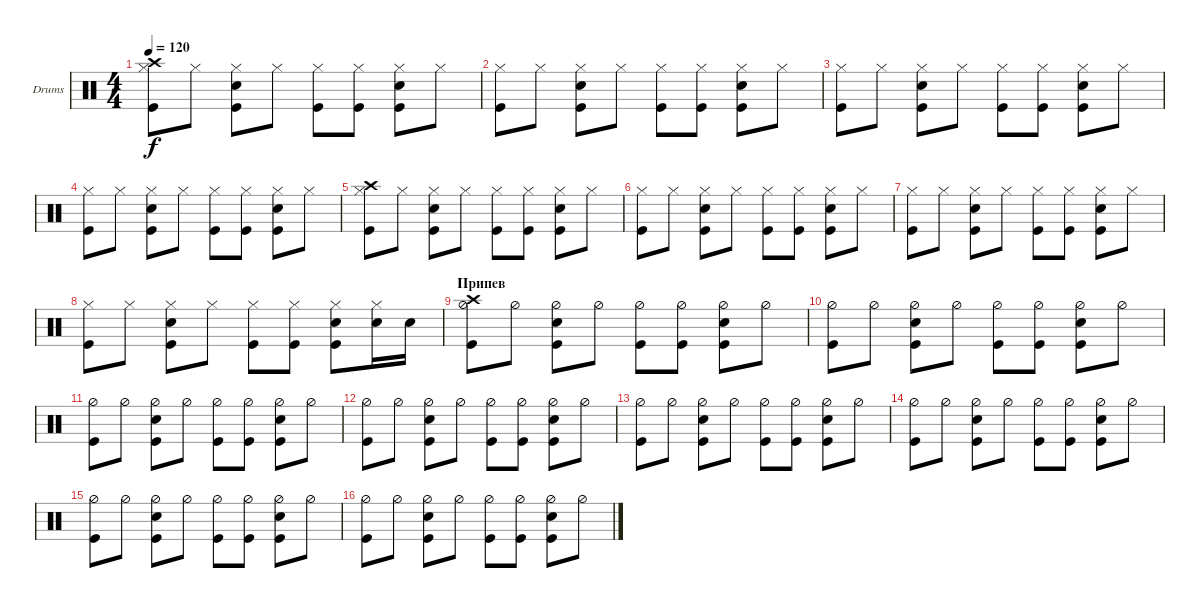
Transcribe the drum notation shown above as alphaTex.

\defaultSystemsLayout 4
\bracketExtendMode groupsimilarinstruments
\firstSystemTrackNameOrientation horizontal
\otherSystemsTrackNameOrientation horizontal
\track ("Drumkit" "Drums") {instrument percussion}
\staff {score}
\articulation defaults
\ts (4 4)
\tempo 120
\clef neutral
\ks c
("Hi-Hat (closed)" "Kick (hit)" "Crash high (hit)").8{dy f} "Hi-Hat (closed)".8 ("Hi-Hat (closed)" "Snare (hit) 2" "Kick (hit)").8 "Hi-Hat (closed)".8 ("Hi-Hat (closed)" "Kick (hit)").8 ("Hi-Hat (closed)" "Kick (hit)").8 ("Hi-Hat (closed)" "Snare (hit) 2" "Kick (hit)").8 "Hi-Hat (closed)".8 |
("Hi-Hat (closed)" "Kick (hit)").8 "Hi-Hat (closed)".8 ("Hi-Hat (closed)" "Snare (hit) 2" "Kick (hit)").8 "Hi-Hat (closed)".8 ("Hi-Hat (closed)" "Kick (hit)").8 ("Hi-Hat (closed)" "Kick (hit)").8 ("Hi-Hat (closed)" "Snare (hit) 2" "Kick (hit)").8 "Hi-Hat (closed)".8 |
("Hi-Hat (closed)" "Kick (hit)").8 "Hi-Hat (closed)".8 ("Hi-Hat (closed)" "Snare (hit) 2" "Kick (hit)").8 "Hi-Hat (closed)".8 ("Hi-Hat (closed)" "Kick (hit)").8 ("Hi-Hat (closed)" "Kick (hit)").8 ("Hi-Hat (closed)" "Snare (hit) 2" "Kick (hit)").8 "Hi-Hat (closed)".8 |
("Hi-Hat (closed)" "Kick (hit)").8 "Hi-Hat (closed)".8 ("Hi-Hat (closed)" "Snare (hit) 2" "Kick (hit)").8 "Hi-Hat (closed)".8 ("Hi-Hat (closed)" "Kick (hit)").8 ("Hi-Hat (closed)" "Kick (hit)").8 ("Hi-Hat (closed)" "Snare (hit) 2" "Kick (hit)").8 "Hi-Hat (closed)".8 |
("Hi-Hat (closed)" "Kick (hit)" "Crash high (hit)").8 "Hi-Hat (closed)".8 ("Hi-Hat (closed)" "Snare (hit) 2" "Kick (hit)").8 "Hi-Hat (closed)".8 ("Hi-Hat (closed)" "Kick (hit)").8 ("Hi-Hat (closed)" "Kick (hit)").8 ("Hi-Hat (closed)" "Snare (hit) 2" "Kick (hit)").8 "Hi-Hat (closed)".8 |
("Hi-Hat (closed)" "Kick (hit)").8 "Hi-Hat (closed)".8 ("Hi-Hat (closed)" "Snare (hit) 2" "Kick (hit)").8 "Hi-Hat (closed)".8 ("Hi-Hat (closed)" "Kick (hit)").8 ("Hi-Hat (closed)" "Kick (hit)").8 ("Hi-Hat (closed)" "Snare (hit) 2" "Kick (hit)").8 "Hi-Hat (closed)".8 |
("Hi-Hat (closed)" "Kick (hit)").8 "Hi-Hat (closed)".8 ("Hi-Hat (closed)" "Snare (hit) 2" "Kick (hit)").8 "Hi-Hat (closed)".8 ("Hi-Hat (closed)" "Kick (hit)").8 ("Hi-Hat (closed)" "Kick (hit)").8 ("Hi-Hat (closed)" "Snare (hit) 2" "Kick (hit)").8 "Hi-Hat (closed)".8 |
("Hi-Hat (closed)" "Kick (hit)").8 "Hi-Hat (closed)".8 ("Hi-Hat (closed)" "Snare (hit) 2" "Kick (hit)").8 "Hi-Hat (closed)".8 ("Hi-Hat (closed)" "Kick (hit)").8 ("Hi-Hat (closed)" "Kick (hit)").8 ("Hi-Hat (closed)" "Snare (hit) 2" "Kick (hit)").8 ("Hi-Hat (closed)" "Snare (hit) 2").16 "Snare (hit) 2".16 |
\section ("" "Припев")
("Hi-Hat (half)" "Kick (hit)" "Crash high (hit)").8 "Hi-Hat (half)".8 ("Hi-Hat (half)" "Snare (hit) 2" "Kick (hit)").8 "Hi-Hat (half)".8 ("Hi-Hat (half)" "Kick (hit)").8 ("Hi-Hat (half)" "Kick (hit)").8 ("Hi-Hat (half)" "Snare (hit) 2" "Kick (hit)").8 "Hi-Hat (half)".8 |
("Hi-Hat (half)" "Kick (hit)").8 "Hi-Hat (half)".8 ("Hi-Hat (half)" "Snare (hit) 2" "Kick (hit)").8 "Hi-Hat (half)".8 ("Hi-Hat (half)" "Kick (hit)").8 ("Hi-Hat (half)" "Kick (hit)").8 ("Hi-Hat (half)" "Snare (hit) 2" "Kick (hit)").8 "Hi-Hat (half)".8 |
("Hi-Hat (half)" "Kick (hit)").8 "Hi-Hat (half)".8 ("Hi-Hat (half)" "Snare (hit) 2" "Kick (hit)").8 "Hi-Hat (half)".8 ("Hi-Hat (half)" "Kick (hit)").8 ("Hi-Hat (half)" "Kick (hit)").8 ("Hi-Hat (half)" "Snare (hit) 2" "Kick (hit)").8 "Hi-Hat (half)".8 |
("Hi-Hat (half)" "Kick (hit)").8 "Hi-Hat (half)".8 ("Hi-Hat (half)" "Snare (hit) 2" "Kick (hit)").8 "Hi-Hat (half)".8 ("Hi-Hat (half)" "Kick (hit)").8 ("Hi-Hat (half)" "Kick (hit)").8 ("Hi-Hat (half)" "Snare (hit) 2" "Kick (hit)").8 "Hi-Hat (half)".8 |
("Kick (hit)" "Hi-Hat (half)").8 "Hi-Hat (half)".8 ("Hi-Hat (half)" "Snare (hit) 2" "Kick (hit)").8 "Hi-Hat (half)".8 ("Hi-Hat (half)" "Kick (hit)").8 ("Hi-Hat (half)" "Kick (hit)").8 ("Hi-Hat (half)" "Snare (hit) 2" "Kick (hit)").8 "Hi-Hat (half)".8 |
("Hi-Hat (half)" "Kick (hit)").8 "Hi-Hat (half)".8 ("Hi-Hat (half)" "Snare (hit) 2" "Kick (hit)").8 "Hi-Hat (half)".8 ("Hi-Hat (half)" "Kick (hit)").8 ("Hi-Hat (half)" "Kick (hit)").8 ("Hi-Hat (half)" "Snare (hit) 2" "Kick (hit)").8 "Hi-Hat (half)".8 |
("Hi-Hat (half)" "Kick (hit)").8 "Hi-Hat (half)".8 ("Hi-Hat (half)" "Snare (hit) 2" "Kick (hit)").8 "Hi-Hat (half)".8 ("Hi-Hat (half)" "Kick (hit)").8 ("Hi-Hat (half)" "Kick (hit)").8 ("Hi-Hat (half)" "Snare (hit) 2" "Kick (hit)").8 "Hi-Hat (half)".8 |
("Hi-Hat (half)" "Kick (hit)").8 "Hi-Hat (half)".8 ("Hi-Hat (half)" "Snare (hit) 2" "Kick (hit)").8 "Hi-Hat (half)".8 ("Hi-Hat (half)" "Kick (hit)").8 ("Hi-Hat (half)" "Kick (hit)").8 ("Hi-Hat (half)" "Snare (hit) 2" "Kick (hit)").8 "Hi-Hat (half)".8
